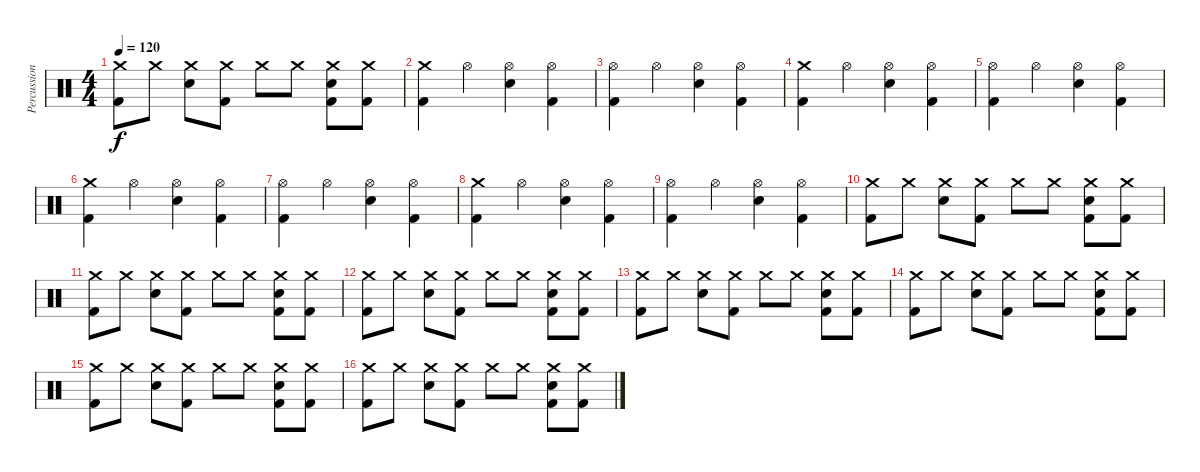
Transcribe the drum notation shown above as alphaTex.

\track ("Percussion" "Percussion") {instrument percussion}
\staff {score}
\articulation defaults
\ts (4 4)
\tempo 120
\clef neutral
\ks c
("Crash medium (hit)" "Kick (hit) 2").8{dy f} "Crash medium (hit)".8 ("Crash medium (hit)" "Electric Snare (hit)").8 ("Crash medium (hit)" "Kick (hit) 2").8 "Crash medium (hit)".8 "Crash medium (hit)".8 ("Crash medium (hit)" "Electric Snare (hit)" "Kick (hit) 2").8 ("Crash medium (hit)" "Kick (hit) 2").8 |
("Crash medium (hit)" "Kick (hit) 2").4 "Hi-Hat (open)".4 ("Hi-Hat (open)" "Electric Snare (hit)").4 ("Hi-Hat (open)" "Kick (hit) 2").4 |
("Hi-Hat (open)" "Kick (hit) 2").4 "Hi-Hat (open)".4 ("Hi-Hat (open)" "Electric Snare (hit)").4 ("Hi-Hat (open)" "Kick (hit) 2").4 |
("Crash medium (hit)" "Kick (hit) 2").4 "Hi-Hat (open)".4 ("Hi-Hat (open)" "Electric Snare (hit)").4 ("Hi-Hat (open)" "Kick (hit) 2").4 |
("Hi-Hat (open)" "Kick (hit) 2").4 "Hi-Hat (open)".4 ("Hi-Hat (open)" "Electric Snare (hit)").4 ("Hi-Hat (open)" "Kick (hit) 2").4 |
("Crash medium (hit)" "Kick (hit) 2").4 "Hi-Hat (open)".4 ("Hi-Hat (open)" "Electric Snare (hit)").4 ("Hi-Hat (open)" "Kick (hit) 2").4 |
("Hi-Hat (open)" "Kick (hit) 2").4 "Hi-Hat (open)".4 ("Hi-Hat (open)" "Electric Snare (hit)").4 ("Hi-Hat (open)" "Kick (hit) 2").4 |
("Crash medium (hit)" "Kick (hit) 2").4 "Hi-Hat (open)".4 ("Hi-Hat (open)" "Electric Snare (hit)").4 ("Hi-Hat (open)" "Kick (hit) 2").4 |
("Hi-Hat (open)" "Kick (hit) 2").4 "Hi-Hat (open)".4 ("Hi-Hat (open)" "Electric Snare (hit)").4 ("Hi-Hat (open)" "Kick (hit) 2").4 |
("Crash medium (hit)" "Kick (hit) 2").8 "Crash medium (hit)".8 ("Crash medium (hit)" "Electric Snare (hit)").8 ("Crash medium (hit)" "Kick (hit) 2").8 "Crash medium (hit)".8 "Crash medium (hit)".8 ("Crash medium (hit)" "Electric Snare (hit)" "Kick (hit) 2").8 ("Crash medium (hit)" "Kick (hit) 2").8 |
("Crash medium (hit)" "Kick (hit) 2").8 "Crash medium (hit)".8 ("Crash medium (hit)" "Electric Snare (hit)").8 ("Crash medium (hit)" "Kick (hit) 2").8 "Crash medium (hit)".8 "Crash medium (hit)".8 ("Crash medium (hit)" "Electric Snare (hit)" "Kick (hit) 2").8 ("Crash medium (hit)" "Kick (hit) 2").8 |
("Crash medium (hit)" "Kick (hit) 2").8 "Crash medium (hit)".8 ("Crash medium (hit)" "Electric Snare (hit)").8 ("Crash medium (hit)" "Kick (hit) 2").8 "Crash medium (hit)".8 "Crash medium (hit)".8 ("Crash medium (hit)" "Electric Snare (hit)" "Kick (hit) 2").8 ("Crash medium (hit)" "Kick (hit) 2").8 |
("Crash medium (hit)" "Kick (hit) 2").8 "Crash medium (hit)".8 ("Crash medium (hit)" "Electric Snare (hit)").8 ("Crash medium (hit)" "Kick (hit) 2").8 "Crash medium (hit)".8 "Crash medium (hit)".8 ("Crash medium (hit)" "Electric Snare (hit)" "Kick (hit) 2").8 ("Crash medium (hit)" "Kick (hit) 2").8 |
("Crash medium (hit)" "Kick (hit) 2").8 "Crash medium (hit)".8 ("Crash medium (hit)" "Electric Snare (hit)").8 ("Crash medium (hit)" "Kick (hit) 2").8 "Crash medium (hit)".8 "Crash medium (hit)".8 ("Crash medium (hit)" "Electric Snare (hit)" "Kick (hit) 2").8 ("Crash medium (hit)" "Kick (hit) 2").8 |
("Crash medium (hit)" "Kick (hit) 2").8 "Crash medium (hit)".8 ("Crash medium (hit)" "Electric Snare (hit)").8 ("Crash medium (hit)" "Kick (hit) 2").8 "Crash medium (hit)".8 "Crash medium (hit)".8 ("Crash medium (hit)" "Electric Snare (hit)" "Kick (hit) 2").8 ("Crash medium (hit)" "Kick (hit) 2").8 |
("Crash medium (hit)" "Kick (hit) 2").8 "Crash medium (hit)".8 ("Crash medium (hit)" "Electric Snare (hit)").8 ("Crash medium (hit)" "Kick (hit) 2").8 "Crash medium (hit)".8 "Crash medium (hit)".8 ("Crash medium (hit)" "Electric Snare (hit)" "Kick (hit) 2").8 ("Crash medium (hit)" "Kick (hit) 2").8
